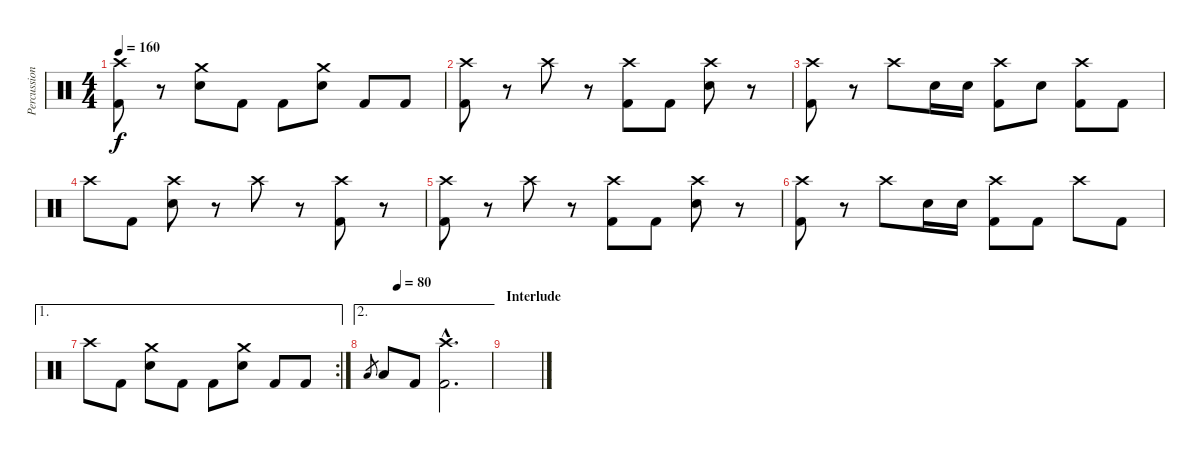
\track ("Percussion" "Percussion") {instrument percussion}
\staff {score}
\articulation defaults
\ts (4 4)
\tempo 160
\clef neutral
\ks c
("Crash high (hit)" "Kick (hit) 2").8{dy f} r.8 ("Crash medium (hit)" "Electric Snare (hit)").8 "Kick (hit) 2".8 "Kick (hit) 2".8 ("Crash medium (hit)" "Electric Snare (hit)").8 "Kick (hit) 2".8 "Kick (hit) 2".8 |
("Crash high (hit)" "Kick (hit) 2").8 r.8 "Crash high (hit)".8 r.8 ("Crash high (hit)" "Kick (hit) 2").8 "Kick (hit) 2".8 ("Crash high (hit)" "Electric Snare (hit)").8 r.8 |
("Crash high (hit)" "Kick (hit) 2").8 r.8 "Crash high (hit)".8 "Electric Snare (hit)".16 "Electric Snare (hit)".16 ("Crash high (hit)" "Kick (hit) 2").8 "Electric Snare (hit)".8 ("Crash high (hit)" "Kick (hit) 2").8 "Kick (hit) 2".8 |
"Crash high (hit)".8 "Kick (hit) 2".8 ("Crash high (hit)" "Electric Snare (hit)").8 r.8 "Crash high (hit)".8 r.8 ("Crash high (hit)" "Kick (hit) 2").8 r.8 |
("Crash high (hit)" "Kick (hit) 2").8 r.8 "Crash high (hit)".8 r.8 ("Crash high (hit)" "Kick (hit) 2").8 "Kick (hit) 2".8 ("Crash high (hit)" "Electric Snare (hit)").8 r.8 |
("Crash high (hit)" "Kick (hit) 2").8 r.8 "Crash high (hit)".8 "Electric Snare (hit)".16 "Electric Snare (hit)".16 ("Crash high (hit)" "Kick (hit) 2").8 "Kick (hit) 2".8 "Crash high (hit)".8 "Kick (hit) 2".8 |
\ae 1
\rc 2 "Crash high (hit)".8 "Kick (hit) 2".8
("Crash medium (hit)" "Electric Snare (hit)").8 "Kick (hit) 2".8 "Kick (hit) 2".8 ("Crash medium (hit)" "Electric Snare (hit)").8 "Kick (hit) 2".8 "Kick (hit) 2".8 |
\ae 2
\tempo (80 0.25)
"Low Tom (hit)".8{gr} "Low Tom (hit)".8 "Kick (hit) 2".8 ("Crash high (hit)"{hac} "Kick (hit) 2"{hac}).2{d} |
\section ("" "Interlude")
